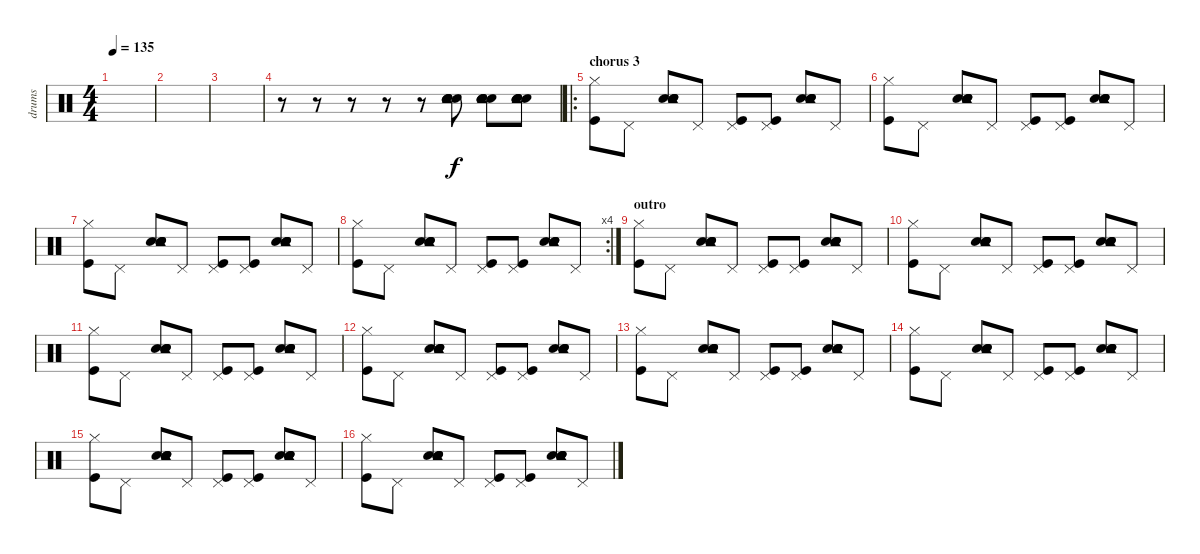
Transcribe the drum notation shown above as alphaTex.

\track ("drums" "drums") {instrument percussion}
\staff {score}
\articulation defaults
\ts (4 4)
\tempo 135
\clef neutral
\ks c
|
|
|
r.8 r.8 r.8 r.8 r.8 ("Snare (hit) 2" "Snare (hit) 2" "Electric Snare (hit)" "Electric Snare (hit)" "Tambourine (hit)").8 ("Snare (hit) 2" "Snare (hit) 2" "Electric Snare (hit)" "Electric Snare (hit)" "Tambourine (hit)").8 ("Snare (hit) 2" "Snare (hit) 2" "Electric Snare (hit)" "Electric Snare (hit)" "Tambourine (hit)").8 |
\ro
\section ("" "chorus 3")
("Kick (hit)" "Hi-Hat (closed)").8 "Pedal Hi-Hat (hit)".8 ("Snare (hit) 2" "Snare (hit) 2" "Electric Snare (hit)" "Electric Snare (hit)" "Tambourine (hit)").8 "Pedal Hi-Hat (hit)".8 ("Kick (hit)" "Pedal Hi-Hat (hit)").8 ("Kick (hit)" "Pedal Hi-Hat (hit)").8 ("Snare (hit) 2" "Snare (hit) 2" "Electric Snare (hit)" "Electric Snare (hit)" "Tambourine (hit)").8 "Pedal Hi-Hat (hit)".8 |
("Kick (hit)" "Hi-Hat (closed)").8 "Pedal Hi-Hat (hit)".8 ("Snare (hit) 2" "Snare (hit) 2" "Electric Snare (hit)" "Electric Snare (hit)" "Tambourine (hit)").8 "Pedal Hi-Hat (hit)".8 ("Kick (hit)" "Pedal Hi-Hat (hit)").8 ("Kick (hit)" "Pedal Hi-Hat (hit)").8 ("Snare (hit) 2" "Snare (hit) 2" "Electric Snare (hit)" "Electric Snare (hit)" "Tambourine (hit)").8 "Pedal Hi-Hat (hit)".8 |
("Kick (hit)" "Hi-Hat (closed)").8 "Pedal Hi-Hat (hit)".8 ("Snare (hit) 2" "Snare (hit) 2" "Electric Snare (hit)" "Electric Snare (hit)" "Tambourine (hit)").8 "Pedal Hi-Hat (hit)".8 ("Kick (hit)" "Pedal Hi-Hat (hit)").8 ("Kick (hit)" "Pedal Hi-Hat (hit)").8 ("Snare (hit) 2" "Snare (hit) 2" "Electric Snare (hit)" "Electric Snare (hit)" "Tambourine (hit)").8 "Pedal Hi-Hat (hit)".8 |
\rc 4
("Kick (hit)" "Hi-Hat (closed)").8 "Pedal Hi-Hat (hit)".8 ("Snare (hit) 2" "Snare (hit) 2" "Electric Snare (hit)" "Electric Snare (hit)" "Tambourine (hit)").8 "Pedal Hi-Hat (hit)".8 ("Kick (hit)" "Pedal Hi-Hat (hit)").8 ("Kick (hit)" "Pedal Hi-Hat (hit)").8 ("Snare (hit) 2" "Snare (hit) 2" "Electric Snare (hit)" "Electric Snare (hit)" "Tambourine (hit)").8 "Pedal Hi-Hat (hit)".8 |
\section ("" "outro")
("Kick (hit)" "Hi-Hat (closed)").8 "Pedal Hi-Hat (hit)".8 ("Snare (hit) 2" "Snare (hit) 2" "Electric Snare (hit)" "Electric Snare (hit)" "Tambourine (hit)").8 "Pedal Hi-Hat (hit)".8 ("Kick (hit)" "Pedal Hi-Hat (hit)").8 ("Kick (hit)" "Pedal Hi-Hat (hit)").8 ("Snare (hit) 2" "Snare (hit) 2" "Electric Snare (hit)" "Electric Snare (hit)" "Tambourine (hit)").8 "Pedal Hi-Hat (hit)".8 |
("Kick (hit)" "Hi-Hat (closed)").8 "Pedal Hi-Hat (hit)".8 ("Snare (hit) 2" "Snare (hit) 2" "Electric Snare (hit)" "Electric Snare (hit)" "Tambourine (hit)").8 "Pedal Hi-Hat (hit)".8 ("Kick (hit)" "Pedal Hi-Hat (hit)").8 ("Kick (hit)" "Pedal Hi-Hat (hit)").8 ("Snare (hit) 2" "Snare (hit) 2" "Electric Snare (hit)" "Electric Snare (hit)" "Tambourine (hit)").8 "Pedal Hi-Hat (hit)".8 |
("Kick (hit)" "Hi-Hat (closed)").8 "Pedal Hi-Hat (hit)".8 ("Snare (hit) 2" "Snare (hit) 2" "Electric Snare (hit)" "Electric Snare (hit)" "Tambourine (hit)").8 "Pedal Hi-Hat (hit)".8 ("Kick (hit)" "Pedal Hi-Hat (hit)").8 ("Kick (hit)" "Pedal Hi-Hat (hit)").8 ("Snare (hit) 2" "Snare (hit) 2" "Electric Snare (hit)" "Electric Snare (hit)" "Tambourine (hit)").8 "Pedal Hi-Hat (hit)".8 |
("Kick (hit)" "Hi-Hat (closed)").8 "Pedal Hi-Hat (hit)".8 ("Snare (hit) 2" "Snare (hit) 2" "Electric Snare (hit)" "Electric Snare (hit)" "Tambourine (hit)").8 "Pedal Hi-Hat (hit)".8 ("Kick (hit)" "Pedal Hi-Hat (hit)").8 ("Kick (hit)" "Pedal Hi-Hat (hit)").8 ("Snare (hit) 2" "Snare (hit) 2" "Electric Snare (hit)" "Electric Snare (hit)" "Tambourine (hit)").8 "Pedal Hi-Hat (hit)".8 |
("Kick (hit)" "Hi-Hat (closed)").8 "Pedal Hi-Hat (hit)".8 ("Snare (hit) 2" "Snare (hit) 2" "Electric Snare (hit)" "Electric Snare (hit)" "Tambourine (hit)").8 "Pedal Hi-Hat (hit)".8 ("Kick (hit)" "Pedal Hi-Hat (hit)").8 ("Kick (hit)" "Pedal Hi-Hat (hit)").8 ("Snare (hit) 2" "Snare (hit) 2" "Electric Snare (hit)" "Electric Snare (hit)" "Tambourine (hit)").8 "Pedal Hi-Hat (hit)".8 |
("Kick (hit)" "Hi-Hat (closed)").8 "Pedal Hi-Hat (hit)".8 ("Snare (hit) 2" "Snare (hit) 2" "Electric Snare (hit)" "Electric Snare (hit)" "Tambourine (hit)").8 "Pedal Hi-Hat (hit)".8 ("Kick (hit)" "Pedal Hi-Hat (hit)").8 ("Kick (hit)" "Pedal Hi-Hat (hit)").8 ("Snare (hit) 2" "Snare (hit) 2" "Electric Snare (hit)" "Electric Snare (hit)" "Tambourine (hit)").8 "Pedal Hi-Hat (hit)".8 |
("Kick (hit)" "Hi-Hat (closed)").8 "Pedal Hi-Hat (hit)".8 ("Snare (hit) 2" "Snare (hit) 2" "Electric Snare (hit)" "Electric Snare (hit)" "Tambourine (hit)").8 "Pedal Hi-Hat (hit)".8 ("Kick (hit)" "Pedal Hi-Hat (hit)").8 ("Kick (hit)" "Pedal Hi-Hat (hit)").8 ("Snare (hit) 2" "Snare (hit) 2" "Electric Snare (hit)" "Electric Snare (hit)" "Tambourine (hit)").8 "Pedal Hi-Hat (hit)".8 |
("Kick (hit)" "Hi-Hat (closed)").8 "Pedal Hi-Hat (hit)".8 ("Snare (hit) 2" "Snare (hit) 2" "Electric Snare (hit)" "Electric Snare (hit)" "Tambourine (hit)").8 "Pedal Hi-Hat (hit)".8 ("Kick (hit)" "Pedal Hi-Hat (hit)").8 ("Kick (hit)" "Pedal Hi-Hat (hit)").8 ("Snare (hit) 2" "Snare (hit) 2" "Electric Snare (hit)" "Electric Snare (hit)" "Tambourine (hit)").8 "Pedal Hi-Hat (hit)".8
